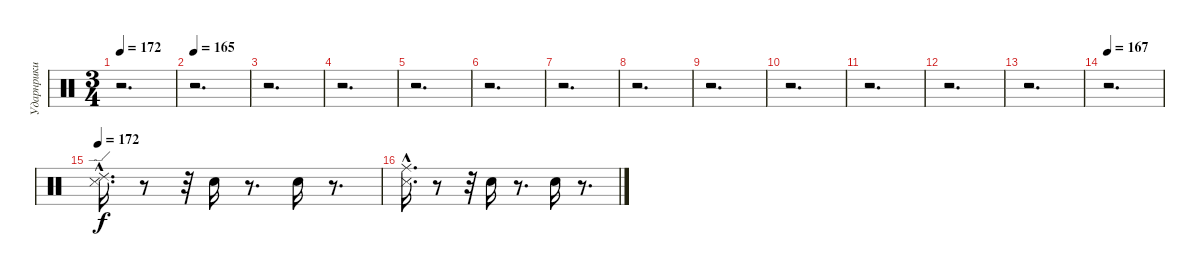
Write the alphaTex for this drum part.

\track ("Ударнрики" "Ударнрики") {instrument percussion}
\staff {score}
\articulation defaults
\ts (3 4)
\tempo 172
\clef neutral
\ks c
r.2{d dy f} |
\tempo 165
r.2{d} |
r.2{d} |
r.2{d} |
r.2{d} |
r.2{d} |
r.2{d} |
r.2{d} |
r.2{d} |
r.2{d} |
r.2{d} |
r.2{d} |
r.2{d} |
\tempo 167
r.2{d} |
\tempo 172
("Ride (edge) 2"{hac} "Metronome (hit)"{hac}).16{d} r.8 r.32 "Electric Snare (hit)".16 r.8{d} "Electric Snare (hit)".16 r.8{d} |
("Ride (middle)" "Metronome (hit)"{hac}).16{d} r.8 r.32 "Electric Snare (hit)".16 r.8{d} "Electric Snare (hit)".16 r.8{d}
